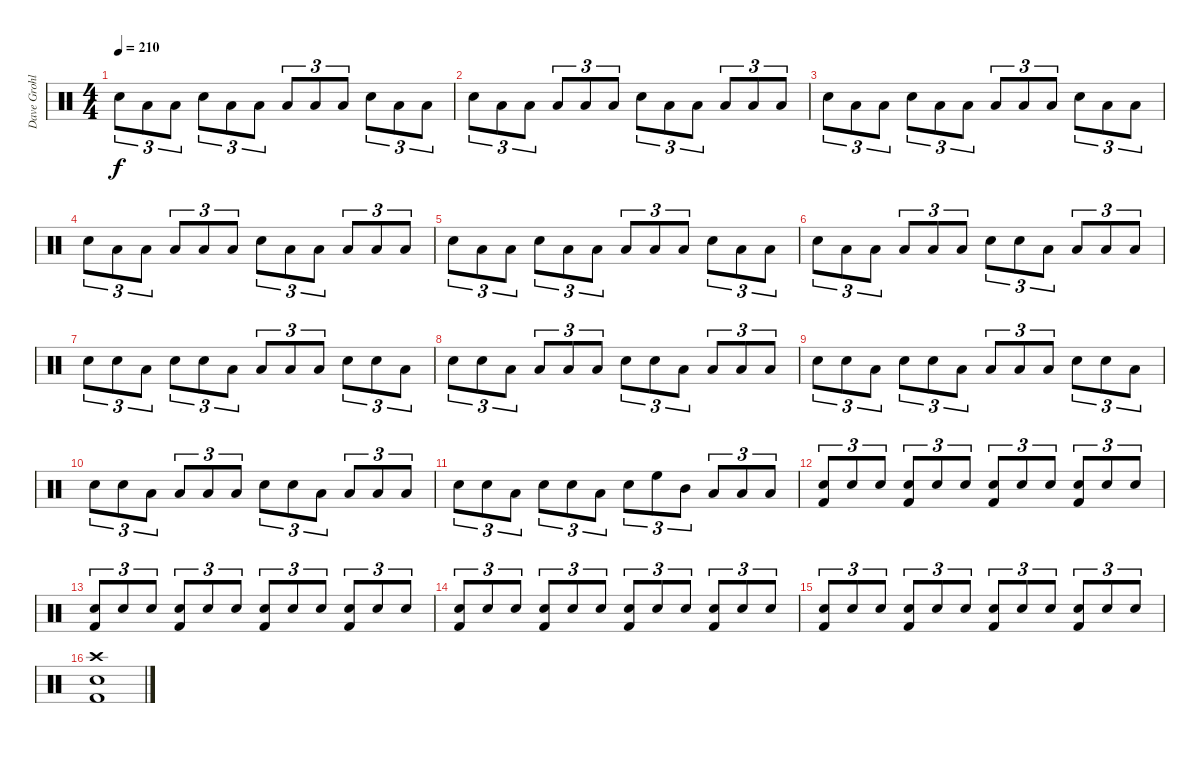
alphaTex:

\track ("Dave Grohl" "Dave Grohl") {instrument percussion}
\staff {score}
\articulation defaults
\ts (4 4)
\tempo 210
\clef neutral
\ks c "Snare (hit) 2".8{tu (3 2) dy f} "Low Floor Tom (hit)".8{tu (3 2)} "Low Tom (hit)".8{tu (3 2)} "Snare (hit) 2".8{tu (3 2)} "Low Tom (hit)".8{tu (3 2)} "Low Tom (hit)".8{tu (3 2)} "Low Floor Tom (hit)".8{tu (3 2)} "Low Tom (hit)".8{tu (3 2)} "Low Floor Tom (hit)".8{tu (3 2)} "Snare (hit) 2".8{tu (3 2)} "Low Tom (hit)".8{tu (3 2)} "Low Floor Tom (hit)".8{tu (3 2)}
|
"Snare (hit) 2".8{tu (3 2)} "Low Floor Tom (hit)".8{tu (3 2)} "Low Tom (hit)".8{tu (3 2)} "Low Floor Tom (hit)".8{tu (3 2)} "Low Tom (hit)".8{tu (3 2)} "Low Tom (hit)".8{tu (3 2)} "Snare (hit) 2".8{tu (3 2)} "Low Tom (hit)".8{tu (3 2)} "Low Floor Tom (hit)".8{tu (3 2)} "Low Floor Tom (hit)".8{tu (3 2)} "Low Tom (hit)".8{tu (3 2)} "Low Floor Tom (hit)".8{tu (3 2)} |
"Snare (hit) 2".8{tu (3 2)} "Low Floor Tom (hit)".8{tu (3 2)} "Low Tom (hit)".8{tu (3 2)} "Snare (hit) 2".8{tu (3 2)} "Low Tom (hit)".8{tu (3 2)} "Low Tom (hit)".8{tu (3 2)} "Low Floor Tom (hit)".8{tu (3 2)} "Low Tom (hit)".8{tu (3 2)} "Low Floor Tom (hit)".8{tu (3 2)} "Snare (hit) 2".8{tu (3 2)} "Low Tom (hit)".8{tu (3 2)} "Low Floor Tom (hit)".8{tu (3 2)} |
"Snare (hit) 2".8{tu (3 2)} "Low Floor Tom (hit)".8{tu (3 2)} "Low Tom (hit)".8{tu (3 2)} "Low Floor Tom (hit)".8{tu (3 2)} "Low Tom (hit)".8{tu (3 2)} "Low Tom (hit)".8{tu (3 2)} "Snare (hit) 2".8{tu (3 2)} "Low Tom (hit)".8{tu (3 2)} "Low Floor Tom (hit)".8{tu (3 2)} "Low Floor Tom (hit)".8{tu (3 2)} "Low Tom (hit)".8{tu (3 2)} "Low Floor Tom (hit)".8{tu (3 2)} |
"Snare (hit) 2".8{tu (3 2)} "Low Floor Tom (hit)".8{tu (3 2)} "Low Tom (hit)".8{tu (3 2)} "Snare (hit) 2".8{tu (3 2)} "Low Tom (hit)".8{tu (3 2)} "Low Tom (hit)".8{tu (3 2)} "Low Floor Tom (hit)".8{tu (3 2)} "Low Tom (hit)".8{tu (3 2)} "Low Floor Tom (hit)".8{tu (3 2)} "Snare (hit) 2".8{tu (3 2)} "Low Tom (hit)".8{tu (3 2)} "Low Floor Tom (hit)".8{tu (3 2)} |
"Snare (hit) 2".8{tu (3 2)} "Low Floor Tom (hit)".8{tu (3 2)} "Low Tom (hit)".8{tu (3 2)} "Low Floor Tom (hit)".8{tu (3 2)} "Low Tom (hit)".8{tu (3 2)} "Low Tom (hit)".8{tu (3 2)} "Snare (hit) 2".8{tu (3 2)} "Snare (hit) 2".8{tu (3 2)} "Low Floor Tom (hit)".8{tu (3 2)} "Low Floor Tom (hit)".8{tu (3 2)} "Low Tom (hit)".8{tu (3 2)} "Low Floor Tom (hit)".8{tu (3 2)} |
"Snare (hit) 2".8{tu (3 2)} "Snare (hit) 2".8{tu (3 2)} "Low Tom (hit)".8{tu (3 2)} "Snare (hit) 2".8{tu (3 2)} "Snare (hit) 2".8{tu (3 2)} "Low Tom (hit)".8{tu (3 2)} "Low Floor Tom (hit)".8{tu (3 2)} "Low Tom (hit)".8{tu (3 2)} "Low Floor Tom (hit)".8{tu (3 2)} "Snare (hit) 2".8{tu (3 2)} "Snare (hit) 2".8{tu (3 2)} "Low Floor Tom (hit)".8{tu (3 2)} |
"Snare (hit) 2".8{tu (3 2)} "Snare (hit) 2".8{tu (3 2)} "Low Tom (hit)".8{tu (3 2)} "Low Floor Tom (hit)".8{tu (3 2)} "Low Tom (hit)".8{tu (3 2)} "Low Tom (hit)".8{tu (3 2)} "Snare (hit) 2".8{tu (3 2)} "Snare (hit) 2".8{tu (3 2)} "Low Floor Tom (hit)".8{tu (3 2)} "Low Floor Tom (hit)".8{tu (3 2)} "Low Tom (hit)".8{tu (3 2)} "Low Floor Tom (hit)".8{tu (3 2)} |
"Snare (hit) 2".8{tu (3 2)} "Snare (hit) 2".8{tu (3 2)} "Low Tom (hit)".8{tu (3 2)} "Snare (hit) 2".8{tu (3 2)} "Snare (hit) 2".8{tu (3 2)} "Low Tom (hit)".8{tu (3 2)} "Low Floor Tom (hit)".8{tu (3 2)} "Low Tom (hit)".8{tu (3 2)} "Low Floor Tom (hit)".8{tu (3 2)} "Snare (hit) 2".8{tu (3 2)} "Snare (hit) 2".8{tu (3 2)} "Low Floor Tom (hit)".8{tu (3 2)} |
"Snare (hit) 2".8{tu (3 2)} "Snare (hit) 2".8{tu (3 2)} "Low Tom (hit)".8{tu (3 2)} "Low Floor Tom (hit)".8{tu (3 2)} "Low Tom (hit)".8{tu (3 2)} "Low Tom (hit)".8{tu (3 2)} "Snare (hit) 2".8{tu (3 2)} "Snare (hit) 2".8{tu (3 2)} "Low Floor Tom (hit)".8{tu (3 2)} "Low Floor Tom (hit)".8{tu (3 2)} "Low Tom (hit)".8{tu (3 2)} "Low Floor Tom (hit)".8{tu (3 2)} |
"Snare (hit) 2".8{tu (3 2)} "Snare (hit) 2".8{tu (3 2)} "Low Tom (hit)".8{tu (3 2)} "Snare (hit) 2".8{tu (3 2)} "Snare (hit) 2".8{tu (3 2)} "Low Tom (hit)".8{tu (3 2)} "Snare (hit) 2".8{tu (3 2)} "High Floor Tom (hit)".8{tu (3 2)} "Mid Tom (hit)".8{tu (3 2)} "Low Tom (hit)".8{tu (3 2)} "Low Floor Tom (hit)".8{tu (3 2)} "Low Floor Tom (hit)".8{tu (3 2)} |
("Kick (hit) 2" "Snare (hit) 2").8{tu (3 2)} "Snare (hit) 2".8{tu (3 2)} "Snare (hit) 2".8{tu (3 2)} ("Kick (hit) 2" "Snare (hit) 2").8{tu (3 2)} "Snare (hit) 2".8{tu (3 2)} "Snare (hit) 2".8{tu (3 2)} ("Kick (hit) 2" "Snare (hit) 2").8{tu (3 2)} "Snare (hit) 2".8{tu (3 2)} "Snare (hit) 2".8{tu (3 2)} ("Kick (hit) 2" "Snare (hit) 2").8{tu (3 2)} "Snare (hit) 2".8{tu (3 2)} "Snare (hit) 2".8{tu (3 2)} |
("Kick (hit) 2" "Snare (hit) 2").8{tu (3 2)} "Snare (hit) 2".8{tu (3 2)} "Snare (hit) 2".8{tu (3 2)} ("Kick (hit) 2" "Snare (hit) 2").8{tu (3 2)} "Snare (hit) 2".8{tu (3 2)} "Snare (hit) 2".8{tu (3 2)} ("Kick (hit) 2" "Snare (hit) 2").8{tu (3 2)} "Snare (hit) 2".8{tu (3 2)} "Snare (hit) 2".8{tu (3 2)} ("Kick (hit) 2" "Snare (hit) 2").8{tu (3 2)} "Snare (hit) 2".8{tu (3 2)} "Snare (hit) 2".8{tu (3 2)} |
("Kick (hit) 2" "Snare (hit) 2").8{tu (3 2)} "Snare (hit) 2".8{tu (3 2)} "Snare (hit) 2".8{tu (3 2)} ("Kick (hit) 2" "Snare (hit) 2").8{tu (3 2)} "Snare (hit) 2".8{tu (3 2)} "Snare (hit) 2".8{tu (3 2)} ("Kick (hit) 2" "Snare (hit) 2").8{tu (3 2)} "Snare (hit) 2".8{tu (3 2)} "Snare (hit) 2".8{tu (3 2)} ("Kick (hit) 2" "Snare (hit) 2").8{tu (3 2)} "Snare (hit) 2".8{tu (3 2)} "Snare (hit) 2".8{tu (3 2)} |
("Kick (hit) 2" "Snare (hit) 2").8{tu (3 2)} "Snare (hit) 2".8{tu (3 2)} "Snare (hit) 2".8{tu (3 2)} ("Kick (hit) 2" "Snare (hit) 2").8{tu (3 2)} "Snare (hit) 2".8{tu (3 2)} "Snare (hit) 2".8{tu (3 2)} ("Kick (hit) 2" "Snare (hit) 2").8{tu (3 2)} "Snare (hit) 2".8{tu (3 2)} "Snare (hit) 2".8{tu (3 2)} ("Kick (hit) 2" "Snare (hit) 2").8{tu (3 2)} "Snare (hit) 2".8{tu (3 2)} "Snare (hit) 2".8{tu (3 2)} |
("Crash high (hit)" "Snare (hit) 2" "Kick (hit) 2").1
